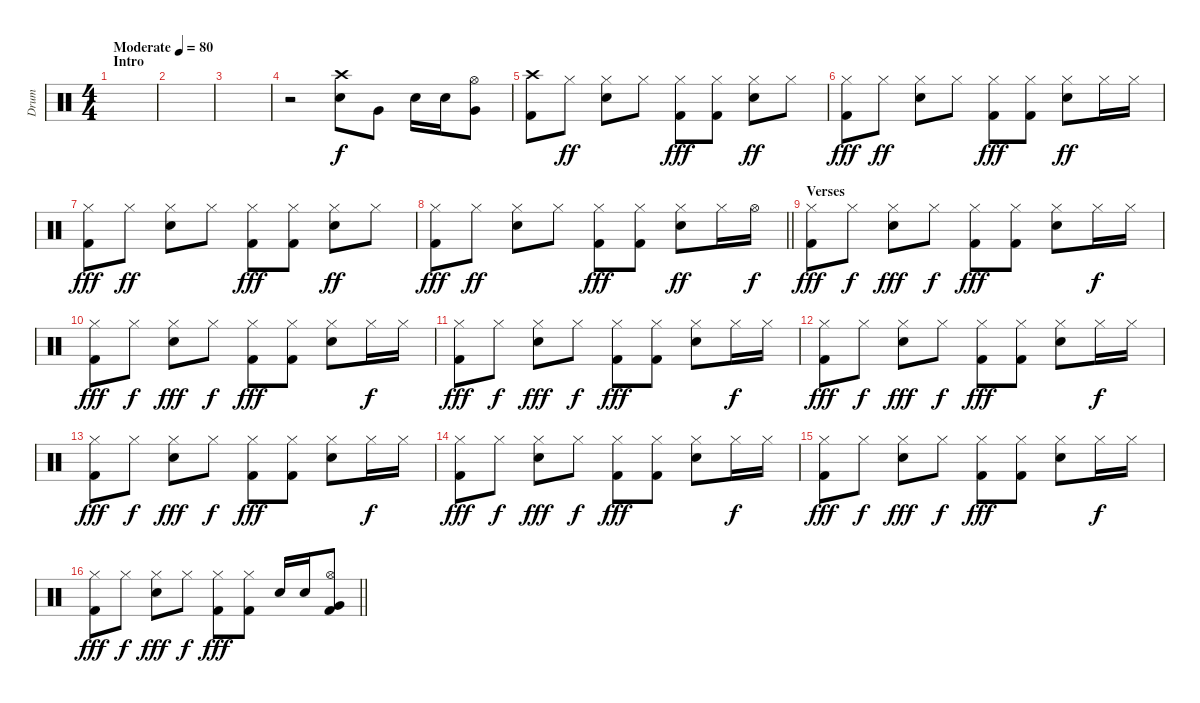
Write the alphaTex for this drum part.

\track ("Drum" "Drum") {instrument percussion}
\staff {score}
\articulation defaults
\ts (4 4)
\section ("" "Intro")
\tempo (80 "Moderate")
\clef neutral
\ks c
|
|
|
r.2 ("Crash high (hit)" "Electric Snare (hit)").8 "Very Low Tom (hit)".8 "Electric Snare (hit)".16 "Electric Snare (hit)".16 ("Hi-Hat (open)" "Very Low Tom (hit)").8 |
("Crash high (hit)" "Kick (hit) 2").8 "Hi-Hat (closed)".8{dy ff} ("Hi-Hat (closed)" "Electric Snare (hit)").8 "Hi-Hat (closed)".8 ("Hi-Hat (closed)" "Kick (hit) 2").8{dy fff} ("Hi-Hat (closed)" "Kick (hit) 2").8 ("Hi-Hat (closed)" "Electric Snare (hit)").8{dy ff} "Hi-Hat (closed)".8 |
("Hi-Hat (closed)" "Kick (hit) 2").8{dy fff} "Hi-Hat (closed)".8{dy ff} ("Hi-Hat (closed)" "Electric Snare (hit)").8 "Hi-Hat (closed)".8 ("Hi-Hat (closed)" "Kick (hit) 2").8{dy fff} ("Hi-Hat (closed)" "Kick (hit) 2").8 ("Hi-Hat (closed)" "Electric Snare (hit)").8{dy ff} "Hi-Hat (closed)".16 "Hi-Hat (closed)".16 |
("Hi-Hat (closed)" "Kick (hit) 2").8{dy fff} "Hi-Hat (closed)".8{dy ff} ("Hi-Hat (closed)" "Electric Snare (hit)").8 "Hi-Hat (closed)".8 ("Hi-Hat (closed)" "Kick (hit) 2").8{dy fff} ("Hi-Hat (closed)" "Kick (hit) 2").8 ("Hi-Hat (closed)" "Electric Snare (hit)").8{dy ff} "Hi-Hat (closed)".8 |
\barLineRight lightlight
("Hi-Hat (closed)" "Kick (hit) 2").8{dy fff} "Hi-Hat (closed)".8{dy ff} ("Hi-Hat (closed)" "Electric Snare (hit)").8 "Hi-Hat (closed)".8 ("Hi-Hat (closed)" "Kick (hit) 2").8{dy fff} ("Hi-Hat (closed)" "Kick (hit) 2").8 ("Hi-Hat (closed)" "Electric Snare (hit)").8{dy ff} "Hi-Hat (closed)".16 "Hi-Hat (open)".16{dy f} |
\section ("" "Verses")
("Hi-Hat (closed)" "Kick (hit) 2").8{dy fff} "Hi-Hat (closed)".8{dy f} ("Hi-Hat (closed)" "Electric Snare (hit)").8{dy fff} "Hi-Hat (closed)".8{dy f} ("Hi-Hat (closed)" "Kick (hit) 2").8{dy fff} ("Hi-Hat (closed)" "Kick (hit) 2").8 ("Hi-Hat (closed)" "Electric Snare (hit)").8 "Hi-Hat (closed)".16{dy f} "Hi-Hat (closed)".16 |
("Hi-Hat (closed)" "Kick (hit) 2").8{dy fff} "Hi-Hat (closed)".8{dy f} ("Hi-Hat (closed)" "Electric Snare (hit)").8{dy fff} "Hi-Hat (closed)".8{dy f} ("Hi-Hat (closed)" "Kick (hit) 2").8{dy fff} ("Hi-Hat (closed)" "Kick (hit) 2").8 ("Hi-Hat (closed)" "Electric Snare (hit)").8 "Hi-Hat (closed)".16{dy f} "Hi-Hat (closed)".16 |
("Hi-Hat (closed)" "Kick (hit) 2").8{dy fff} "Hi-Hat (closed)".8{dy f} ("Hi-Hat (closed)" "Electric Snare (hit)").8{dy fff} "Hi-Hat (closed)".8{dy f} ("Hi-Hat (closed)" "Kick (hit) 2").8{dy fff} ("Hi-Hat (closed)" "Kick (hit) 2").8 ("Hi-Hat (closed)" "Electric Snare (hit)").8 "Hi-Hat (closed)".16{dy f} "Hi-Hat (closed)".16 |
("Hi-Hat (closed)" "Kick (hit) 2").8{dy fff} "Hi-Hat (closed)".8{dy f} ("Hi-Hat (closed)" "Electric Snare (hit)").8{dy fff} "Hi-Hat (closed)".8{dy f} ("Hi-Hat (closed)" "Kick (hit) 2").8{dy fff} ("Hi-Hat (closed)" "Kick (hit) 2").8 ("Hi-Hat (closed)" "Electric Snare (hit)").8 "Hi-Hat (closed)".16{dy f} "Hi-Hat (closed)".16 |
("Hi-Hat (closed)" "Kick (hit) 2").8{dy fff} "Hi-Hat (closed)".8{dy f} ("Hi-Hat (closed)" "Electric Snare (hit)").8{dy fff} "Hi-Hat (closed)".8{dy f} ("Hi-Hat (closed)" "Kick (hit) 2").8{dy fff} ("Hi-Hat (closed)" "Kick (hit) 2").8 ("Hi-Hat (closed)" "Electric Snare (hit)").8 "Hi-Hat (closed)".16{dy f} "Hi-Hat (closed)".16 |
("Hi-Hat (closed)" "Kick (hit) 2").8{dy fff} "Hi-Hat (closed)".8{dy f} ("Hi-Hat (closed)" "Electric Snare (hit)").8{dy fff} "Hi-Hat (closed)".8{dy f} ("Hi-Hat (closed)" "Kick (hit) 2").8{dy fff} ("Hi-Hat (closed)" "Kick (hit) 2").8 ("Hi-Hat (closed)" "Electric Snare (hit)").8 "Hi-Hat (closed)".16{dy f} "Hi-Hat (closed)".16 |
("Hi-Hat (closed)" "Kick (hit) 2").8{dy fff} "Hi-Hat (closed)".8{dy f} ("Hi-Hat (closed)" "Electric Snare (hit)").8{dy fff} "Hi-Hat (closed)".8{dy f} ("Hi-Hat (closed)" "Kick (hit) 2").8{dy fff} ("Hi-Hat (closed)" "Kick (hit) 2").8 ("Hi-Hat (closed)" "Electric Snare (hit)").8 "Hi-Hat (closed)".16{dy f} "Hi-Hat (closed)".16 |
\barLineRight lightlight
("Hi-Hat (closed)" "Kick (hit) 2").8{dy fff} "Hi-Hat (closed)".8{dy f} ("Hi-Hat (closed)" "Electric Snare (hit)").8{dy fff} "Hi-Hat (closed)".8{dy f} ("Hi-Hat (closed)" "Kick (hit) 2").8{dy fff} ("Hi-Hat (closed)" "Kick (hit) 2").8 "Electric Snare (hit)".16 "Electric Snare (hit)".16 ("Hi-Hat (open)" "Very Low Tom (hit)" "Kick (hit) 2").8
